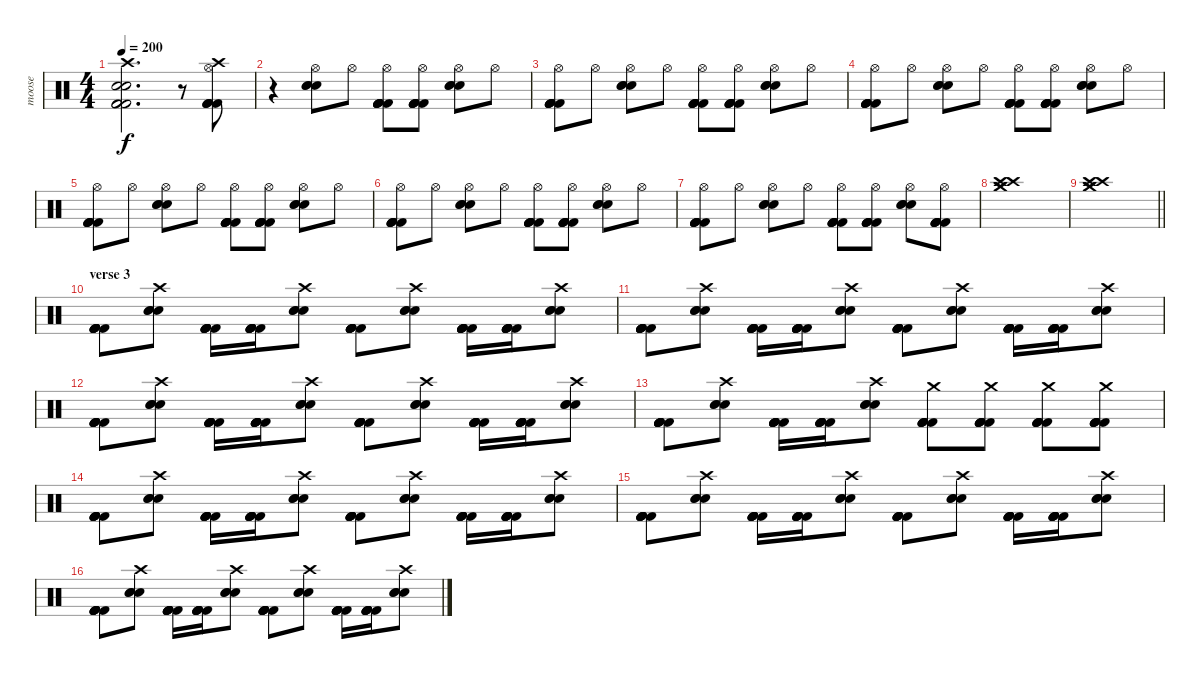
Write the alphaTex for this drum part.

\track ("moose" "moose") {instrument percussion}
\staff {score}
\articulation defaults
\ts (4 4)
\tempo 200
\clef neutral
\ks c
("Kick (hit) 2" "Kick (hit) 2" "Kick (hit) 2" "Electric Snare (hit)" "Electric Snare (hit)" "Crash high (hit)").2{d dy f} r.8 ("Kick (hit) 2" "Kick (hit) 2" "Kick (hit) 2" "Kick (hit) 2" "Crash high (hit)" "Hi-Hat (open)").8 |
r.4 ("Electric Snare (hit)" "Electric Snare (hit)" "Electric Snare (hit)" "Hi-Hat (open)").8 "Hi-Hat (open)".8 ("Kick (hit) 2" "Kick (hit) 2" "Kick (hit) 2" "Kick (hit) 2" "Kick (hit) 2" "Hi-Hat (open)").8 ("Kick (hit) 2" "Kick (hit) 2" "Kick (hit) 2" "Kick (hit) 2" "Kick (hit) 2" "Hi-Hat (open)").8 ("Electric Snare (hit)" "Electric Snare (hit)" "Electric Snare (hit)" "Hi-Hat (open)").8 "Hi-Hat (open)".8 |
("Kick (hit) 2" "Kick (hit) 2" "Kick (hit) 2" "Kick (hit) 2" "Kick (hit) 2" "Hi-Hat (open)").8 "Hi-Hat (open)".8 ("Electric Snare (hit)" "Electric Snare (hit)" "Electric Snare (hit)" "Hi-Hat (open)").8 "Hi-Hat (open)".8 ("Kick (hit) 2" "Kick (hit) 2" "Kick (hit) 2" "Kick (hit) 2" "Kick (hit) 2" "Hi-Hat (open)").8 ("Kick (hit) 2" "Kick (hit) 2" "Kick (hit) 2" "Kick (hit) 2" "Kick (hit) 2" "Hi-Hat (open)").8 ("Electric Snare (hit)" "Electric Snare (hit)" "Electric Snare (hit)" "Hi-Hat (open)").8 "Hi-Hat (open)".8 |
("Kick (hit) 2" "Kick (hit) 2" "Kick (hit) 2" "Kick (hit) 2" "Kick (hit) 2" "Hi-Hat (open)").8 "Hi-Hat (open)".8 ("Electric Snare (hit)" "Electric Snare (hit)" "Electric Snare (hit)" "Hi-Hat (open)").8 "Hi-Hat (open)".8 ("Kick (hit) 2" "Kick (hit) 2" "Kick (hit) 2" "Kick (hit) 2" "Kick (hit) 2" "Hi-Hat (open)").8 ("Kick (hit) 2" "Kick (hit) 2" "Kick (hit) 2" "Kick (hit) 2" "Kick (hit) 2" "Hi-Hat (open)").8 ("Electric Snare (hit)" "Electric Snare (hit)" "Electric Snare (hit)" "Hi-Hat (open)").8 "Hi-Hat (open)".8 |
("Kick (hit) 2" "Kick (hit) 2" "Kick (hit) 2" "Kick (hit) 2" "Kick (hit) 2" "Hi-Hat (open)").8 "Hi-Hat (open)".8 ("Electric Snare (hit)" "Electric Snare (hit)" "Electric Snare (hit)" "Hi-Hat (open)").8 "Hi-Hat (open)".8 ("Kick (hit) 2" "Kick (hit) 2" "Kick (hit) 2" "Kick (hit) 2" "Kick (hit) 2" "Hi-Hat (open)").8 ("Kick (hit) 2" "Kick (hit) 2" "Kick (hit) 2" "Kick (hit) 2" "Kick (hit) 2" "Hi-Hat (open)").8 ("Electric Snare (hit)" "Electric Snare (hit)" "Electric Snare (hit)" "Hi-Hat (open)").8 "Hi-Hat (open)".8 |
("Kick (hit) 2" "Kick (hit) 2" "Kick (hit) 2" "Kick (hit) 2" "Kick (hit) 2" "Hi-Hat (open)").8 "Hi-Hat (open)".8 ("Electric Snare (hit)" "Electric Snare (hit)" "Electric Snare (hit)" "Hi-Hat (open)").8 "Hi-Hat (open)".8 ("Kick (hit) 2" "Kick (hit) 2" "Kick (hit) 2" "Kick (hit) 2" "Kick (hit) 2" "Hi-Hat (open)").8 ("Kick (hit) 2" "Kick (hit) 2" "Kick (hit) 2" "Kick (hit) 2" "Kick (hit) 2" "Hi-Hat (open)").8 ("Electric Snare (hit)" "Electric Snare (hit)" "Electric Snare (hit)" "Hi-Hat (open)").8 "Hi-Hat (open)".8 |
("Kick (hit) 2" "Kick (hit) 2" "Kick (hit) 2" "Kick (hit) 2" "Kick (hit) 2" "Hi-Hat (open)").8 "Hi-Hat (open)".8 ("Electric Snare (hit)" "Electric Snare (hit)" "Electric Snare (hit)" "Hi-Hat (open)").8 "Hi-Hat (open)".8 ("Kick (hit) 2" "Kick (hit) 2" "Kick (hit) 2" "Kick (hit) 2" "Kick (hit) 2" "Hi-Hat (open)").8 ("Kick (hit) 2" "Kick (hit) 2" "Kick (hit) 2" "Kick (hit) 2" "Kick (hit) 2" "Hi-Hat (open)").8 ("Electric Snare (hit)" "Electric Snare (hit)" "Electric Snare (hit)" "Hi-Hat (open)").8 ("Kick (hit) 2" "Kick (hit) 2" "Kick (hit) 2" "Kick (hit) 2" "Kick (hit) 2" "Hi-Hat (open)").8 |
("Crash high (hit)" "Crash medium (hit)" "Crash medium (hit)" "Crash high (hit)").1 |
\barLineRight lightlight
("Crash high (hit)" "Crash medium (hit)" "Crash medium (hit)" "Crash high (hit)").1 |
\section ("" "verse 3")
("Kick (hit) 2" "Kick (hit) 2" "Kick (hit) 2" "Kick (hit) 2" "Kick (hit) 2" "Kick (hit) 2").8 ("Electric Snare (hit)" "Electric Snare (hit)" "Electric Snare (hit)" "Crash high (hit)").8 ("Kick (hit) 2" "Kick (hit) 2" "Kick (hit) 2" "Kick (hit) 2" "Kick (hit) 2" "Kick (hit) 2").16 ("Kick (hit) 2" "Kick (hit) 2" "Kick (hit) 2" "Kick (hit) 2" "Kick (hit) 2" "Kick (hit) 2").16 ("Electric Snare (hit)" "Electric Snare (hit)" "Electric Snare (hit)" "Crash high (hit)").8 ("Kick (hit) 2" "Kick (hit) 2" "Kick (hit) 2" "Kick (hit) 2" "Kick (hit) 2" "Kick (hit) 2").8 ("Electric Snare (hit)" "Electric Snare (hit)" "Electric Snare (hit)" "Crash high (hit)").8 ("Kick (hit) 2" "Kick (hit) 2" "Kick (hit) 2" "Kick (hit) 2" "Kick (hit) 2" "Kick (hit) 2").16 ("Kick (hit) 2" "Kick (hit) 2" "Kick (hit) 2" "Kick (hit) 2" "Kick (hit) 2" "Kick (hit) 2").16 ("Electric Snare (hit)" "Electric Snare (hit)" "Electric Snare (hit)" "Crash high (hit)").8 |
("Kick (hit) 2" "Kick (hit) 2" "Kick (hit) 2" "Kick (hit) 2" "Kick (hit) 2" "Kick (hit) 2").8 ("Electric Snare (hit)" "Electric Snare (hit)" "Electric Snare (hit)" "Crash high (hit)").8 ("Kick (hit) 2" "Kick (hit) 2" "Kick (hit) 2" "Kick (hit) 2" "Kick (hit) 2" "Kick (hit) 2").16 ("Kick (hit) 2" "Kick (hit) 2" "Kick (hit) 2" "Kick (hit) 2" "Kick (hit) 2" "Kick (hit) 2").16 ("Electric Snare (hit)" "Electric Snare (hit)" "Electric Snare (hit)" "Crash high (hit)").8 ("Kick (hit) 2" "Kick (hit) 2" "Kick (hit) 2" "Kick (hit) 2" "Kick (hit) 2" "Kick (hit) 2").8 ("Electric Snare (hit)" "Electric Snare (hit)" "Electric Snare (hit)" "Crash high (hit)").8 ("Kick (hit) 2" "Kick (hit) 2" "Kick (hit) 2" "Kick (hit) 2" "Kick (hit) 2" "Kick (hit) 2").16 ("Kick (hit) 2" "Kick (hit) 2" "Kick (hit) 2" "Kick (hit) 2" "Kick (hit) 2" "Kick (hit) 2").16 ("Electric Snare (hit)" "Electric Snare (hit)" "Electric Snare (hit)" "Crash high (hit)").8 |
("Kick (hit) 2" "Kick (hit) 2" "Kick (hit) 2" "Kick (hit) 2" "Kick (hit) 2" "Kick (hit) 2").8 ("Electric Snare (hit)" "Electric Snare (hit)" "Electric Snare (hit)" "Crash high (hit)").8 ("Kick (hit) 2" "Kick (hit) 2" "Kick (hit) 2" "Kick (hit) 2" "Kick (hit) 2" "Kick (hit) 2").16 ("Kick (hit) 2" "Kick (hit) 2" "Kick (hit) 2" "Kick (hit) 2" "Kick (hit) 2" "Kick (hit) 2").16 ("Electric Snare (hit)" "Electric Snare (hit)" "Electric Snare (hit)" "Crash high (hit)").8 ("Kick (hit) 2" "Kick (hit) 2" "Kick (hit) 2" "Kick (hit) 2" "Kick (hit) 2" "Kick (hit) 2").8 ("Electric Snare (hit)" "Electric Snare (hit)" "Electric Snare (hit)" "Crash high (hit)").8 ("Kick (hit) 2" "Kick (hit) 2" "Kick (hit) 2" "Kick (hit) 2" "Kick (hit) 2" "Kick (hit) 2").16 ("Kick (hit) 2" "Kick (hit) 2" "Kick (hit) 2" "Kick (hit) 2" "Kick (hit) 2" "Kick (hit) 2").16 ("Electric Snare (hit)" "Electric Snare (hit)" "Electric Snare (hit)" "Crash high (hit)").8 |
("Kick (hit) 2" "Kick (hit) 2" "Kick (hit) 2" "Kick (hit) 2" "Kick (hit) 2" "Kick (hit) 2").8 ("Electric Snare (hit)" "Electric Snare (hit)" "Electric Snare (hit)" "Crash high (hit)").8 ("Kick (hit) 2" "Kick (hit) 2" "Kick (hit) 2" "Kick (hit) 2" "Kick (hit) 2" "Kick (hit) 2").16 ("Kick (hit) 2" "Kick (hit) 2" "Kick (hit) 2" "Kick (hit) 2" "Kick (hit) 2" "Kick (hit) 2").16 ("Electric Snare (hit)" "Electric Snare (hit)" "Electric Snare (hit)" "Crash high (hit)").8 ("Kick (hit) 2" "Kick (hit) 2" "Kick (hit) 2" "Kick (hit) 2" "Kick (hit) 2" "Crash medium (hit)").8 ("Kick (hit) 2" "Kick (hit) 2" "Kick (hit) 2" "Kick (hit) 2" "Kick (hit) 2" "Crash medium (hit)").8 ("Kick (hit) 2" "Kick (hit) 2" "Kick (hit) 2" "Kick (hit) 2" "Kick (hit) 2" "Crash medium (hit)").8 ("Kick (hit) 2" "Kick (hit) 2" "Kick (hit) 2" "Kick (hit) 2" "Kick (hit) 2" "Crash medium (hit)").8 |
("Kick (hit) 2" "Kick (hit) 2" "Kick (hit) 2" "Kick (hit) 2" "Kick (hit) 2" "Kick (hit) 2").8 ("Electric Snare (hit)" "Electric Snare (hit)" "Electric Snare (hit)" "Crash high (hit)").8 ("Kick (hit) 2" "Kick (hit) 2" "Kick (hit) 2" "Kick (hit) 2" "Kick (hit) 2" "Kick (hit) 2").16 ("Kick (hit) 2" "Kick (hit) 2" "Kick (hit) 2" "Kick (hit) 2" "Kick (hit) 2" "Kick (hit) 2").16 ("Electric Snare (hit)" "Electric Snare (hit)" "Electric Snare (hit)" "Crash high (hit)").8 ("Kick (hit) 2" "Kick (hit) 2" "Kick (hit) 2" "Kick (hit) 2" "Kick (hit) 2" "Kick (hit) 2").8 ("Electric Snare (hit)" "Electric Snare (hit)" "Electric Snare (hit)" "Crash high (hit)").8 ("Kick (hit) 2" "Kick (hit) 2" "Kick (hit) 2" "Kick (hit) 2" "Kick (hit) 2" "Kick (hit) 2").16 ("Kick (hit) 2" "Kick (hit) 2" "Kick (hit) 2" "Kick (hit) 2" "Kick (hit) 2" "Kick (hit) 2").16 ("Electric Snare (hit)" "Electric Snare (hit)" "Electric Snare (hit)" "Crash high (hit)").8 |
("Kick (hit) 2" "Kick (hit) 2" "Kick (hit) 2" "Kick (hit) 2" "Kick (hit) 2" "Kick (hit) 2").8 ("Electric Snare (hit)" "Electric Snare (hit)" "Electric Snare (hit)" "Crash high (hit)").8 ("Kick (hit) 2" "Kick (hit) 2" "Kick (hit) 2" "Kick (hit) 2" "Kick (hit) 2" "Kick (hit) 2").16 ("Kick (hit) 2" "Kick (hit) 2" "Kick (hit) 2" "Kick (hit) 2" "Kick (hit) 2" "Kick (hit) 2").16 ("Electric Snare (hit)" "Electric Snare (hit)" "Electric Snare (hit)" "Crash high (hit)").8 ("Kick (hit) 2" "Kick (hit) 2" "Kick (hit) 2" "Kick (hit) 2" "Kick (hit) 2" "Kick (hit) 2").8 ("Electric Snare (hit)" "Electric Snare (hit)" "Electric Snare (hit)" "Crash high (hit)").8 ("Kick (hit) 2" "Kick (hit) 2" "Kick (hit) 2" "Kick (hit) 2" "Kick (hit) 2" "Kick (hit) 2").16 ("Kick (hit) 2" "Kick (hit) 2" "Kick (hit) 2" "Kick (hit) 2" "Kick (hit) 2" "Kick (hit) 2").16 ("Electric Snare (hit)" "Electric Snare (hit)" "Electric Snare (hit)" "Crash high (hit)").8 |
("Kick (hit) 2" "Kick (hit) 2" "Kick (hit) 2" "Kick (hit) 2" "Kick (hit) 2" "Kick (hit) 2").8 ("Electric Snare (hit)" "Electric Snare (hit)" "Electric Snare (hit)" "Crash high (hit)").8 ("Kick (hit) 2" "Kick (hit) 2" "Kick (hit) 2" "Kick (hit) 2" "Kick (hit) 2" "Kick (hit) 2").16 ("Kick (hit) 2" "Kick (hit) 2" "Kick (hit) 2" "Kick (hit) 2" "Kick (hit) 2" "Kick (hit) 2").16 ("Electric Snare (hit)" "Electric Snare (hit)" "Electric Snare (hit)" "Crash high (hit)").8 ("Kick (hit) 2" "Kick (hit) 2" "Kick (hit) 2" "Kick (hit) 2" "Kick (hit) 2" "Kick (hit) 2").8 ("Electric Snare (hit)" "Electric Snare (hit)" "Electric Snare (hit)" "Crash high (hit)").8 ("Kick (hit) 2" "Kick (hit) 2" "Kick (hit) 2" "Kick (hit) 2" "Kick (hit) 2" "Kick (hit) 2").16 ("Kick (hit) 2" "Kick (hit) 2" "Kick (hit) 2" "Kick (hit) 2" "Kick (hit) 2" "Kick (hit) 2").16 ("Electric Snare (hit)" "Electric Snare (hit)" "Electric Snare (hit)" "Crash high (hit)").8
